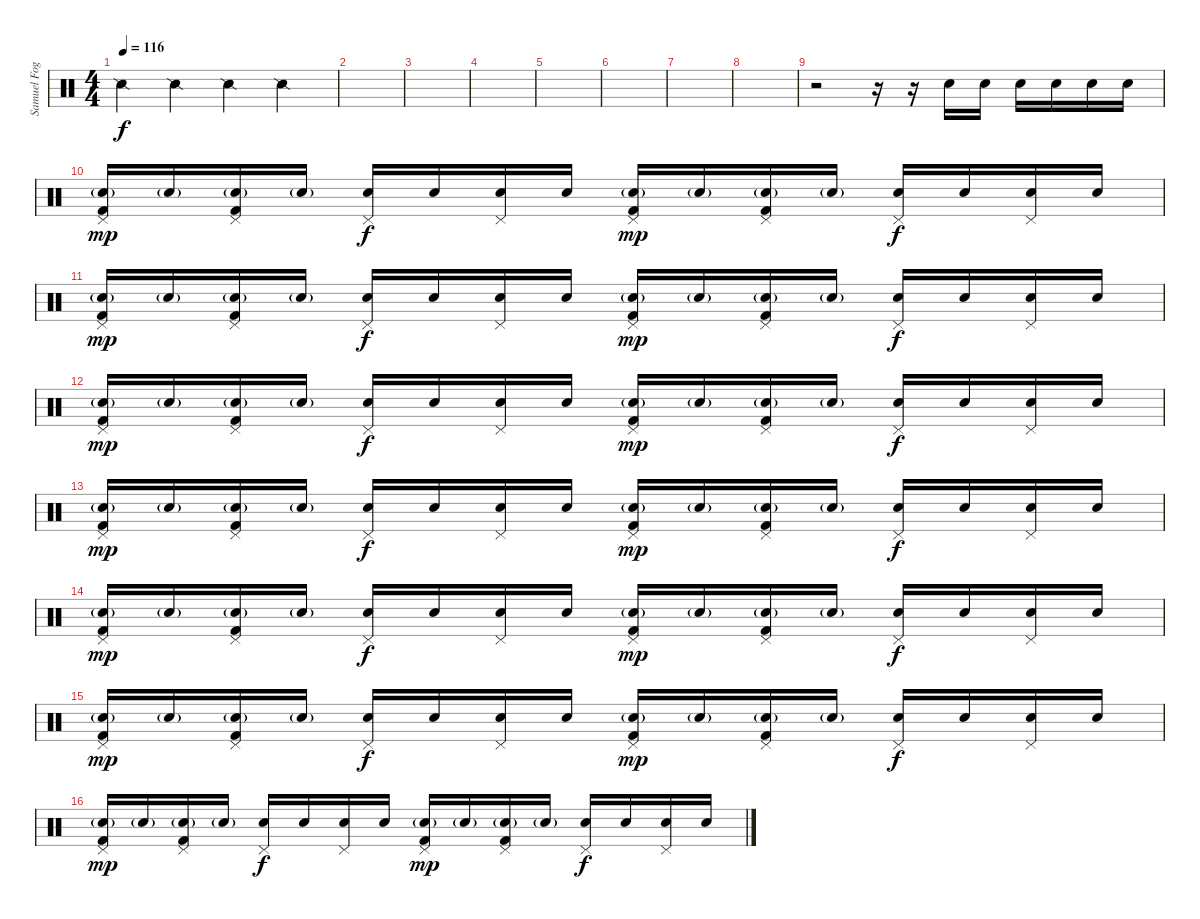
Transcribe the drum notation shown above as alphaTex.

\track ("Samuel Fogarino" "Samuel Fog") {instrument percussion}
\staff {score}
\articulation defaults
\ts (4 4)
\tempo 116
\clef neutral
\ks c "Snare (side stick) 2".4{dy f} "Snare (side stick) 2".4 "Snare (side stick) 2".4 "Snare (side stick) 2".4
|
|
|
|
|
|
|
|
r.2 r.16 r.16 "Snare (hit) 2".16 "Snare (hit) 2".16 "Snare (hit) 2".16 "Snare (hit) 2".16 "Snare (hit) 2".16 "Snare (hit) 2".16 |
("Pedal Hi-Hat (hit)" "Snare (hit) 2"{g} "Kick (hit) 2").16{dy mp} "Snare (hit) 2"{g}.16 ("Pedal Hi-Hat (hit)" "Snare (hit) 2"{g} "Kick (hit) 2").16 "Snare (hit) 2"{g}.16 ("Pedal Hi-Hat (hit)" "Snare (hit) 2").16{dy f} "Snare (hit) 2".16 ("Pedal Hi-Hat (hit)" "Snare (hit) 2").16 "Snare (hit) 2".16 ("Pedal Hi-Hat (hit)" "Snare (hit) 2"{g} "Kick (hit) 2").16{dy mp} "Snare (hit) 2"{g}.16 ("Pedal Hi-Hat (hit)" "Snare (hit) 2"{g} "Kick (hit) 2").16 "Snare (hit) 2"{g}.16 ("Pedal Hi-Hat (hit)" "Snare (hit) 2").16{dy f} "Snare (hit) 2".16 ("Pedal Hi-Hat (hit)" "Snare (hit) 2").16 "Snare (hit) 2".16 |
("Pedal Hi-Hat (hit)" "Snare (hit) 2"{g} "Kick (hit) 2").16{dy mp} "Snare (hit) 2"{g}.16 ("Pedal Hi-Hat (hit)" "Snare (hit) 2"{g} "Kick (hit) 2").16 "Snare (hit) 2"{g}.16 ("Pedal Hi-Hat (hit)" "Snare (hit) 2").16{dy f} "Snare (hit) 2".16 ("Pedal Hi-Hat (hit)" "Snare (hit) 2").16 "Snare (hit) 2".16 ("Pedal Hi-Hat (hit)" "Snare (hit) 2"{g} "Kick (hit) 2").16{dy mp} "Snare (hit) 2"{g}.16 ("Pedal Hi-Hat (hit)" "Snare (hit) 2"{g} "Kick (hit) 2").16 "Snare (hit) 2"{g}.16 ("Pedal Hi-Hat (hit)" "Snare (hit) 2").16{dy f} "Snare (hit) 2".16 ("Pedal Hi-Hat (hit)" "Snare (hit) 2").16 "Snare (hit) 2".16 |
("Pedal Hi-Hat (hit)" "Snare (hit) 2"{g} "Kick (hit) 2").16{dy mp} "Snare (hit) 2"{g}.16 ("Pedal Hi-Hat (hit)" "Snare (hit) 2"{g} "Kick (hit) 2").16 "Snare (hit) 2"{g}.16 ("Pedal Hi-Hat (hit)" "Snare (hit) 2").16{dy f} "Snare (hit) 2".16 ("Pedal Hi-Hat (hit)" "Snare (hit) 2").16 "Snare (hit) 2".16 ("Pedal Hi-Hat (hit)" "Snare (hit) 2"{g} "Kick (hit) 2").16{dy mp} "Snare (hit) 2"{g}.16 ("Pedal Hi-Hat (hit)" "Snare (hit) 2"{g} "Kick (hit) 2").16 "Snare (hit) 2"{g}.16 ("Pedal Hi-Hat (hit)" "Snare (hit) 2").16{dy f} "Snare (hit) 2".16 ("Pedal Hi-Hat (hit)" "Snare (hit) 2").16 "Snare (hit) 2".16 |
("Pedal Hi-Hat (hit)" "Snare (hit) 2"{g} "Kick (hit) 2").16{dy mp} "Snare (hit) 2"{g}.16 ("Pedal Hi-Hat (hit)" "Snare (hit) 2"{g} "Kick (hit) 2").16 "Snare (hit) 2"{g}.16 ("Pedal Hi-Hat (hit)" "Snare (hit) 2").16{dy f} "Snare (hit) 2".16 ("Pedal Hi-Hat (hit)" "Snare (hit) 2").16 "Snare (hit) 2".16 ("Pedal Hi-Hat (hit)" "Snare (hit) 2"{g} "Kick (hit) 2").16{dy mp} "Snare (hit) 2"{g}.16 ("Pedal Hi-Hat (hit)" "Snare (hit) 2"{g} "Kick (hit) 2").16 "Snare (hit) 2"{g}.16 ("Pedal Hi-Hat (hit)" "Snare (hit) 2").16{dy f} "Snare (hit) 2".16 ("Pedal Hi-Hat (hit)" "Snare (hit) 2").16 "Snare (hit) 2".16 |
("Pedal Hi-Hat (hit)" "Snare (hit) 2"{g} "Kick (hit) 2").16{dy mp} "Snare (hit) 2"{g}.16 ("Pedal Hi-Hat (hit)" "Snare (hit) 2"{g} "Kick (hit) 2").16 "Snare (hit) 2"{g}.16 ("Pedal Hi-Hat (hit)" "Snare (hit) 2").16{dy f} "Snare (hit) 2".16 ("Pedal Hi-Hat (hit)" "Snare (hit) 2").16 "Snare (hit) 2".16 ("Pedal Hi-Hat (hit)" "Snare (hit) 2"{g} "Kick (hit) 2").16{dy mp} "Snare (hit) 2"{g}.16 ("Pedal Hi-Hat (hit)" "Snare (hit) 2"{g} "Kick (hit) 2").16 "Snare (hit) 2"{g}.16 ("Pedal Hi-Hat (hit)" "Snare (hit) 2").16{dy f} "Snare (hit) 2".16 ("Pedal Hi-Hat (hit)" "Snare (hit) 2").16 "Snare (hit) 2".16 |
("Pedal Hi-Hat (hit)" "Snare (hit) 2"{g} "Kick (hit) 2").16{dy mp} "Snare (hit) 2"{g}.16 ("Pedal Hi-Hat (hit)" "Snare (hit) 2"{g} "Kick (hit) 2").16 "Snare (hit) 2"{g}.16 ("Pedal Hi-Hat (hit)" "Snare (hit) 2").16{dy f} "Snare (hit) 2".16 ("Pedal Hi-Hat (hit)" "Snare (hit) 2").16 "Snare (hit) 2".16 ("Pedal Hi-Hat (hit)" "Snare (hit) 2"{g} "Kick (hit) 2").16{dy mp} "Snare (hit) 2"{g}.16 ("Pedal Hi-Hat (hit)" "Snare (hit) 2"{g} "Kick (hit) 2").16 "Snare (hit) 2"{g}.16 ("Pedal Hi-Hat (hit)" "Snare (hit) 2").16{dy f} "Snare (hit) 2".16 ("Pedal Hi-Hat (hit)" "Snare (hit) 2").16 "Snare (hit) 2".16 |
("Pedal Hi-Hat (hit)" "Snare (hit) 2"{g} "Kick (hit) 2").16{dy mp} "Snare (hit) 2"{g}.16 ("Pedal Hi-Hat (hit)" "Snare (hit) 2"{g} "Kick (hit) 2").16 "Snare (hit) 2"{g}.16 ("Pedal Hi-Hat (hit)" "Snare (hit) 2").16{dy f} "Snare (hit) 2".16 ("Pedal Hi-Hat (hit)" "Snare (hit) 2").16 "Snare (hit) 2".16 ("Pedal Hi-Hat (hit)" "Snare (hit) 2"{g} "Kick (hit) 2").16{dy mp} "Snare (hit) 2"{g}.16 ("Pedal Hi-Hat (hit)" "Snare (hit) 2"{g} "Kick (hit) 2").16 "Snare (hit) 2"{g}.16 ("Pedal Hi-Hat (hit)" "Snare (hit) 2").16{dy f} "Snare (hit) 2".16 ("Pedal Hi-Hat (hit)" "Snare (hit) 2").16 "Snare (hit) 2".16
